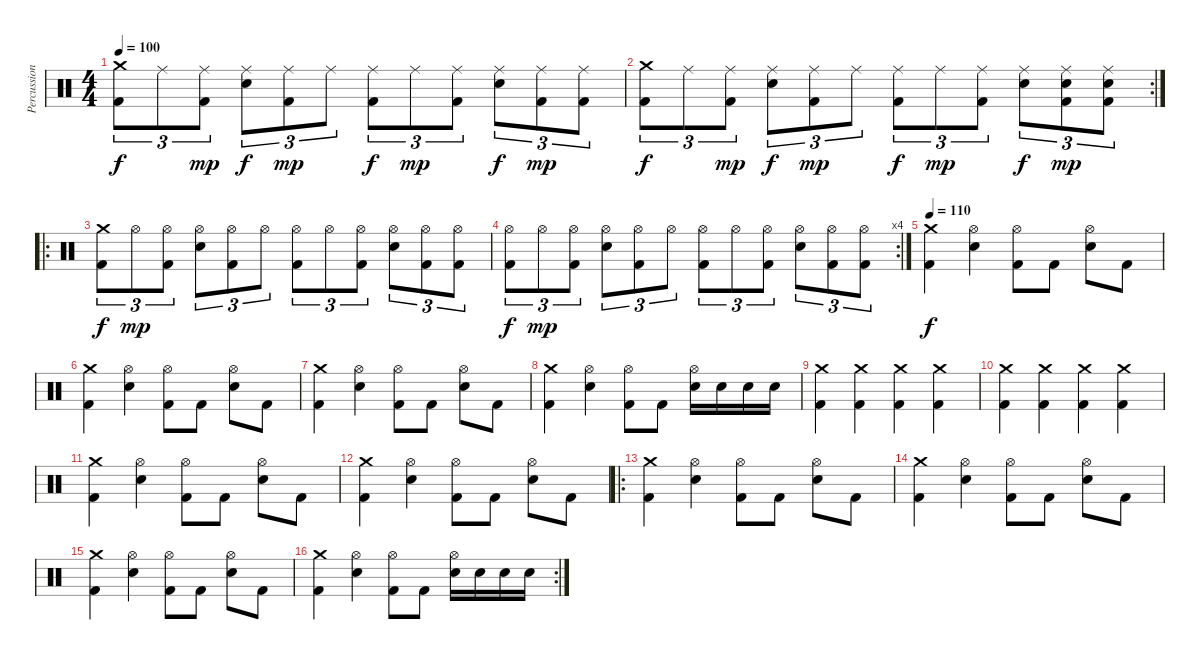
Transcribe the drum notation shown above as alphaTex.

\track ("Percussion" "Percussion") {instrument percussion}
\staff {score}
\articulation defaults
\ts (4 4)
\tempo 100
\clef neutral
\ks c
("Crash medium (hit)" "Kick (hit) 2").8{tu (3 2) dy f} "Ride (middle)".8{tu (3 2)} ("Ride (middle)" "Kick (hit) 2").8{tu (3 2) dy mp} ("Ride (middle)" "Electric Snare (hit)").8{tu (3 2) dy f} ("Ride (middle)" "Kick (hit) 2").8{tu (3 2) dy mp} "Ride (middle)".8{tu (3 2)} ("Ride (middle)" "Kick (hit) 2").8{tu (3 2) dy f} "Ride (middle)".8{tu (3 2) dy mp} ("Ride (middle)" "Kick (hit) 2").8{tu (3 2)} ("Ride (middle)" "Electric Snare (hit)").8{tu (3 2) dy f} ("Ride (middle)" "Kick (hit) 2").8{tu (3 2) dy mp} ("Ride (middle)" "Kick (hit) 2").8{tu (3 2)} |
\rc 2
("Crash medium (hit)" "Kick (hit) 2").8{tu (3 2) dy f} "Ride (middle)".8{tu (3 2)} ("Ride (middle)" "Kick (hit) 2").8{tu (3 2) dy mp} ("Ride (middle)" "Electric Snare (hit)").8{tu (3 2) dy f} ("Ride (middle)" "Kick (hit) 2").8{tu (3 2) dy mp} "Ride (middle)".8{tu (3 2)} ("Ride (middle)" "Kick (hit) 2").8{tu (3 2) dy f} "Ride (middle)".8{tu (3 2) dy mp} ("Ride (middle)" "Kick (hit) 2").8{tu (3 2)} ("Ride (middle)" "Electric Snare (hit)").8{tu (3 2) dy f} ("Ride (middle)" "Electric Snare (hit)" "Kick (hit) 2").8{tu (3 2) dy mp} ("Ride (middle)" "Electric Snare (hit)" "Kick (hit) 2").8{tu (3 2)} |
\ro
("Crash medium (hit)" "Kick (hit) 2").8{tu (3 2) dy f} "Hi-Hat (open)".8{tu (3 2) dy mp} ("Hi-Hat (open)" "Kick (hit) 2").8{tu (3 2)} ("Hi-Hat (open)" "Electric Snare (hit)").8{tu (3 2)} ("Hi-Hat (open)" "Kick (hit) 2").8{tu (3 2)} "Hi-Hat (open)".8{tu (3 2)} ("Hi-Hat (open)" "Kick (hit) 2").8{tu (3 2)} "Hi-Hat (open)".8{tu (3 2)} ("Hi-Hat (open)" "Kick (hit) 2").8{tu (3 2)} ("Hi-Hat (open)" "Electric Snare (hit)").8{tu (3 2)} ("Hi-Hat (open)" "Kick (hit) 2").8{tu (3 2)} ("Hi-Hat (open)" "Kick (hit) 2").8{tu (3 2)} |
\rc 4
("Hi-Hat (open)" "Kick (hit) 2").8{tu (3 2) dy f} "Hi-Hat (open)".8{tu (3 2) dy mp} ("Hi-Hat (open)" "Kick (hit) 2").8{tu (3 2)} ("Hi-Hat (open)" "Electric Snare (hit)").8{tu (3 2)} ("Hi-Hat (open)" "Kick (hit) 2").8{tu (3 2)} "Hi-Hat (open)".8{tu (3 2)} ("Hi-Hat (open)" "Kick (hit) 2").8{tu (3 2)} "Hi-Hat (open)".8{tu (3 2)} ("Hi-Hat (open)" "Kick (hit) 2").8{tu (3 2)} ("Hi-Hat (open)" "Electric Snare (hit)").8{tu (3 2)} ("Hi-Hat (open)" "Kick (hit) 2").8{tu (3 2)} ("Hi-Hat (open)" "Kick (hit) 2").8{tu (3 2)} |
\tempo 110
("Crash medium (hit)" "Kick (hit) 2").4{dy f} ("Hi-Hat (open)" "Electric Snare (hit)").4 ("Hi-Hat (open)" "Kick (hit) 2").8 "Kick (hit) 2".8 ("Hi-Hat (open)" "Electric Snare (hit)").8 "Kick (hit) 2".8 |
("Crash medium (hit)" "Kick (hit) 2").4 ("Hi-Hat (open)" "Electric Snare (hit)").4 ("Hi-Hat (open)" "Kick (hit) 2").8 "Kick (hit) 2".8 ("Hi-Hat (open)" "Electric Snare (hit)").8 "Kick (hit) 2".8 |
("Crash medium (hit)" "Kick (hit) 2").4 ("Hi-Hat (open)" "Electric Snare (hit)").4 ("Hi-Hat (open)" "Kick (hit) 2").8 "Kick (hit) 2".8 ("Hi-Hat (open)" "Electric Snare (hit)").8 "Kick (hit) 2".8 |
("Crash medium (hit)" "Kick (hit) 2").4 ("Hi-Hat (open)" "Electric Snare (hit)").4 ("Hi-Hat (open)" "Kick (hit) 2").8 "Kick (hit) 2".8 ("Hi-Hat (open)" "Electric Snare (hit)").16 "Electric Snare (hit)".16 "Electric Snare (hit)".16 "Electric Snare (hit)".16 |
("Crash medium (hit)" "Kick (hit) 2").4 ("Crash medium (hit)" "Kick (hit) 2").4 ("Crash medium (hit)" "Kick (hit) 2").4 ("Crash medium (hit)" "Kick (hit) 2").4 |
("Crash medium (hit)" "Kick (hit) 2").4 ("Crash medium (hit)" "Kick (hit) 2").4 ("Crash medium (hit)" "Kick (hit) 2").4 ("Crash medium (hit)" "Kick (hit) 2").4 |
("Crash medium (hit)" "Kick (hit) 2").4 ("Hi-Hat (open)" "Electric Snare (hit)").4 ("Hi-Hat (open)" "Kick (hit) 2").8 "Kick (hit) 2".8 ("Hi-Hat (open)" "Electric Snare (hit)").8 "Kick (hit) 2".8 |
("Crash medium (hit)" "Kick (hit) 2").4 ("Hi-Hat (open)" "Electric Snare (hit)").4 ("Hi-Hat (open)" "Kick (hit) 2").8 "Kick (hit) 2".8 ("Hi-Hat (open)" "Electric Snare (hit)").8 "Kick (hit) 2".8 |
\ro
("Crash medium (hit)" "Kick (hit) 2").4 ("Hi-Hat (open)" "Electric Snare (hit)").4 ("Hi-Hat (open)" "Kick (hit) 2").8 "Kick (hit) 2".8 ("Hi-Hat (open)" "Electric Snare (hit)").8 "Kick (hit) 2".8 |
("Crash medium (hit)" "Kick (hit) 2").4 ("Hi-Hat (open)" "Electric Snare (hit)").4 ("Hi-Hat (open)" "Kick (hit) 2").8 "Kick (hit) 2".8 ("Hi-Hat (open)" "Electric Snare (hit)").8 "Kick (hit) 2".8 |
("Crash medium (hit)" "Kick (hit) 2").4 ("Hi-Hat (open)" "Electric Snare (hit)").4 ("Hi-Hat (open)" "Kick (hit) 2").8 "Kick (hit) 2".8 ("Hi-Hat (open)" "Electric Snare (hit)").8 "Kick (hit) 2".8 |
\rc 2
("Crash medium (hit)" "Kick (hit) 2").4 ("Hi-Hat (open)" "Electric Snare (hit)").4 ("Hi-Hat (open)" "Kick (hit) 2").8 "Kick (hit) 2".8 ("Hi-Hat (open)" "Electric Snare (hit)").16 "Electric Snare (hit)".16 "Electric Snare (hit)".16 "Electric Snare (hit)".16
